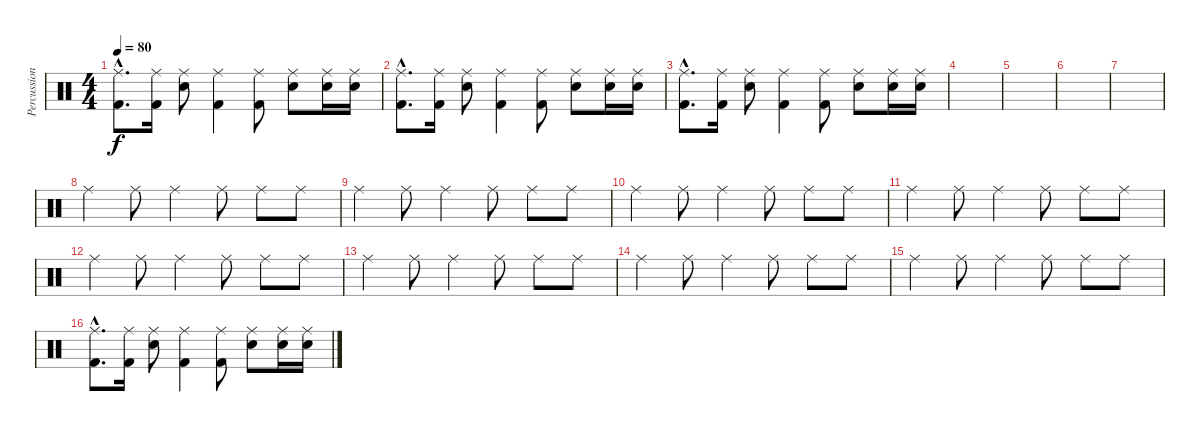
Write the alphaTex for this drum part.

\track ("Percussion" "Percussion") {instrument percussion}
\staff {score}
\articulation defaults
\ts (4 4)
\tempo 80
\clef neutral
\ks c
("Ride (middle)"{hac} "Kick (hit) 2"{hac}).8{d dy f} ("Ride (middle)" "Kick (hit) 2").16 ("Ride (middle)" "Electric Snare (hit)").8 ("Ride (middle)" "Kick (hit) 2").4 ("Ride (middle)" "Kick (hit) 2").8 ("Ride (middle)" "Electric Snare (hit)").8 ("Ride (middle)" "Electric Snare (hit)").16 ("Ride (middle)" "Electric Snare (hit)").16 |
("Ride (middle)"{hac} "Kick (hit) 2"{hac}).8{d} ("Ride (middle)" "Kick (hit) 2").16 ("Ride (middle)" "Electric Snare (hit)").8 ("Ride (middle)" "Kick (hit) 2").4 ("Ride (middle)" "Kick (hit) 2").8 ("Ride (middle)" "Electric Snare (hit)").8 ("Ride (middle)" "Electric Snare (hit)").16 ("Ride (middle)" "Electric Snare (hit)").16 |
("Ride (middle)"{hac} "Kick (hit) 2"{hac}).8{d} ("Ride (middle)" "Kick (hit) 2").16 ("Ride (middle)" "Electric Snare (hit)").8 ("Ride (middle)" "Kick (hit) 2").4 ("Ride (middle)" "Kick (hit) 2").8 ("Ride (middle)" "Electric Snare (hit)").8 ("Ride (middle)" "Electric Snare (hit)").16 ("Ride (middle)" "Electric Snare (hit)").16 |
|
|
|
|
"Ride (middle)".4 "Ride (middle)".8 "Ride (middle)".4 "Ride (middle)".8 "Ride (middle)".8 "Ride (middle)".8 |
"Ride (middle)".4 "Ride (middle)".8 "Ride (middle)".4 "Ride (middle)".8 "Ride (middle)".8 "Ride (middle)".8 |
"Ride (middle)".4 "Ride (middle)".8 "Ride (middle)".4 "Ride (middle)".8 "Ride (middle)".8 "Ride (middle)".8 |
"Ride (middle)".4 "Ride (middle)".8 "Ride (middle)".4 "Ride (middle)".8 "Ride (middle)".8 "Ride (middle)".8 |
"Ride (middle)".4{volume 13} "Ride (middle)".8 "Ride (middle)".4 "Ride (middle)".8 "Ride (middle)".8 "Ride (middle)".8 |
"Ride (middle)".4 "Ride (middle)".8 "Ride (middle)".4 "Ride (middle)".8 "Ride (middle)".8 "Ride (middle)".8 |
"Ride (middle)".4{volume 13} "Ride (middle)".8 "Ride (middle)".4 "Ride (middle)".8 "Ride (middle)".8 "Ride (middle)".8 |
"Ride (middle)".4 "Ride (middle)".8 "Ride (middle)".4 "Ride (middle)".8 "Ride (middle)".8 "Ride (middle)".8 |
("Ride (middle)"{hac} "Kick (hit) 2"{hac}).8{d} ("Ride (middle)" "Kick (hit) 2").16 ("Ride (middle)" "Electric Snare (hit)").8 ("Ride (middle)" "Kick (hit) 2").4 ("Ride (middle)" "Kick (hit) 2").8 ("Ride (middle)" "Electric Snare (hit)").8 ("Ride (middle)" "Electric Snare (hit)").16 ("Ride (middle)" "Electric Snare (hit)").16
